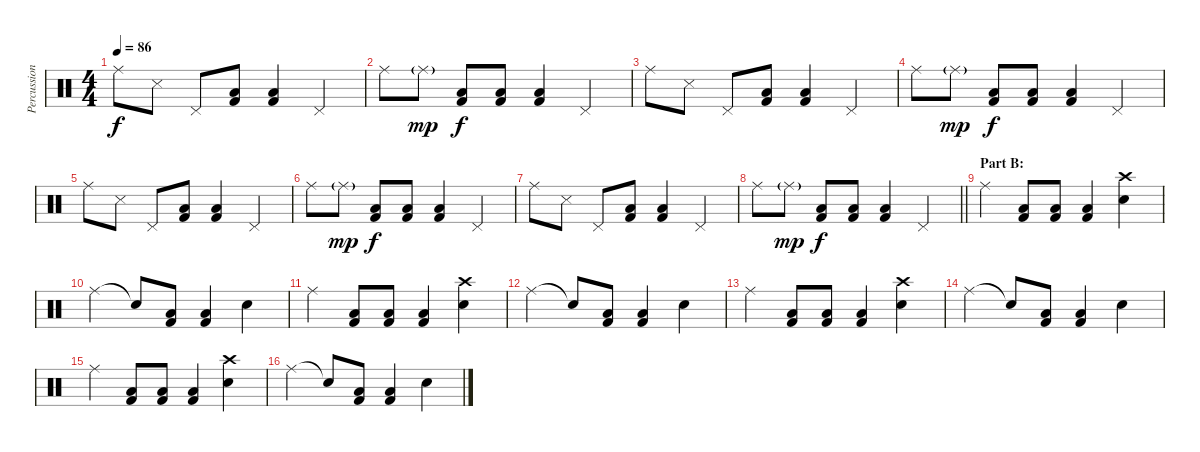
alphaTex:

\track ("Percussion" "Percussion") {instrument percussion}
\staff {score}
\articulation defaults
\ts (4 4)
\tempo 86
\clef neutral
\ks c "Ride (middle)".8{dy f} "Snare (side stick) 3".8 "Pedal Hi-Hat (hit)".8
("Low Tom (hit)" "Kick (hit) 2").8 ("Low Tom (hit)" "Kick (hit) 2").4 "Pedal Hi-Hat (hit)".4 |
"Ride (middle)".8 "Ride (middle)"{g}.8{dy mp} ("Low Tom (hit)" "Kick (hit) 2").8{dy f} ("Low Tom (hit)" "Kick (hit) 2").8 ("Low Tom (hit)" "Kick (hit) 2").4 "Pedal Hi-Hat (hit)".4 |
"Ride (middle)".8 "Snare (side stick) 3".8 "Pedal Hi-Hat (hit)".8 ("Low Tom (hit)" "Kick (hit) 2").8 ("Low Tom (hit)" "Kick (hit) 2").4 "Pedal Hi-Hat (hit)".4 |
"Ride (middle)".8 "Ride (middle)"{g}.8{dy mp} ("Low Tom (hit)" "Kick (hit) 2").8{dy f} ("Low Tom (hit)" "Kick (hit) 2").8 ("Low Tom (hit)" "Kick (hit) 2").4 "Pedal Hi-Hat (hit)".4 |
"Ride (middle)".8 "Snare (side stick) 3".8 "Pedal Hi-Hat (hit)".8 ("Low Tom (hit)" "Kick (hit) 2").8 ("Low Tom (hit)" "Kick (hit) 2").4 "Pedal Hi-Hat (hit)".4 |
"Ride (middle)".8 "Ride (middle)"{g}.8{dy mp} ("Low Tom (hit)" "Kick (hit) 2").8{dy f} ("Low Tom (hit)" "Kick (hit) 2").8 ("Low Tom (hit)" "Kick (hit) 2").4 "Pedal Hi-Hat (hit)".4 |
"Ride (middle)".8 "Snare (side stick) 3".8 "Pedal Hi-Hat (hit)".8 ("Low Tom (hit)" "Kick (hit) 2").8 ("Low Tom (hit)" "Kick (hit) 2").4 "Pedal Hi-Hat (hit)".4 |
\barLineRight lightlight "Ride (middle)".8 "Ride (middle)"{g}.8{dy mp}
("Low Tom (hit)" "Kick (hit) 2").8{dy f} ("Low Tom (hit)" "Kick (hit) 2").8 ("Low Tom (hit)" "Kick (hit) 2").4 "Pedal Hi-Hat (hit)".4 |
\section ("" "Part B:")
"Ride (middle)".4 ("Low Tom (hit)" "Kick (hit) 2").8 ("Low Tom (hit)" "Kick (hit) 2").8 ("Low Tom (hit)" "Kick (hit) 2").4 ("Crash high (hit)" "Snare (hit) 2").4 |
"Ride (middle)".4 "Snare (hit)"{t}.8 ("Low Tom (hit)" "Kick (hit) 2").8 ("Low Tom (hit)" "Kick (hit) 2").4 "Snare (hit) 2".4 |
"Ride (middle)".4 ("Low Tom (hit)" "Kick (hit) 2").8 ("Low Tom (hit)" "Kick (hit) 2").8 ("Low Tom (hit)" "Kick (hit) 2").4 ("Crash high (hit)" "Snare (hit) 2").4 |
"Ride (middle)".4 "Snare (hit)"{t}.8 ("Low Tom (hit)" "Kick (hit) 2").8 ("Low Tom (hit)" "Kick (hit) 2").4 "Snare (hit) 2".4 |
"Ride (middle)".4 ("Low Tom (hit)" "Kick (hit) 2").8 ("Low Tom (hit)" "Kick (hit) 2").8 ("Low Tom (hit)" "Kick (hit) 2").4 ("Crash high (hit)" "Snare (hit) 2").4 |
"Ride (middle)".4 "Snare (hit)"{t}.8 ("Low Tom (hit)" "Kick (hit) 2").8 ("Low Tom (hit)" "Kick (hit) 2").4 "Snare (hit) 2".4 |
"Ride (middle)".4 ("Low Tom (hit)" "Kick (hit) 2").8 ("Low Tom (hit)" "Kick (hit) 2").8 ("Low Tom (hit)" "Kick (hit) 2").4 ("Crash high (hit)" "Snare (hit) 2").4 |
"Ride (middle)".4 "Snare (hit)"{t}.8 ("Low Tom (hit)" "Kick (hit) 2").8 ("Low Tom (hit)" "Kick (hit) 2").4 "Snare (hit) 2".4
